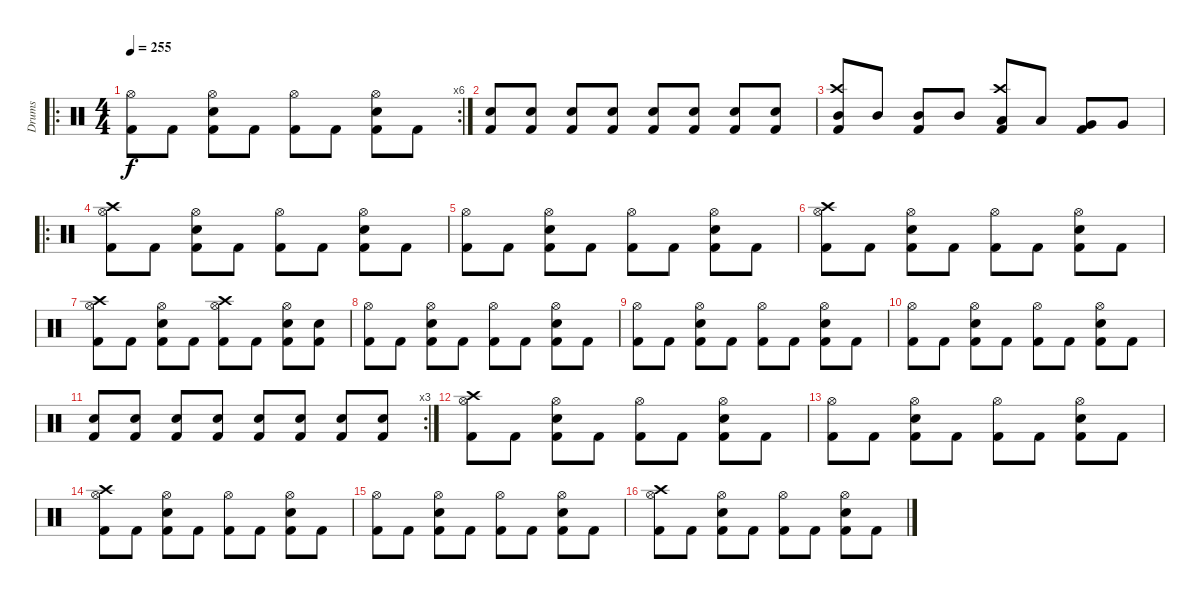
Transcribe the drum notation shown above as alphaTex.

\track ("Drums" "Drums") {instrument percussion}
\staff {score}
\articulation defaults
\ro
\rc 6
\ts (4 4)
\tempo 255
\clef neutral
\ks c
("Hi-Hat (open)" "Kick (hit) 2").8{dy f} "Kick (hit) 2".8 ("Hi-Hat (open)" "Electric Snare (hit)" "Kick (hit) 2").8 "Kick (hit) 2".8 ("Hi-Hat (open)" "Kick (hit) 2").8 "Kick (hit) 2".8 ("Hi-Hat (open)" "Electric Snare (hit)" "Kick (hit) 2").8 "Kick (hit) 2".8 |
("Electric Snare (hit)" "Kick (hit) 2").8 ("Electric Snare (hit)" "Kick (hit) 2").8 ("Electric Snare (hit)" "Kick (hit) 2").8 ("Electric Snare (hit)" "Kick (hit) 2").8 ("Electric Snare (hit)" "Kick (hit) 2").8 ("Electric Snare (hit)" "Kick (hit) 2").8 ("Electric Snare (hit)" "Kick (hit) 2").8 ("Electric Snare (hit)" "Kick (hit) 2").8 |
("Crash high (hit)" "Mid Tom (hit)" "Kick (hit) 2").8 "Mid Tom (hit)".8 ("Mid Tom (hit)" "Kick (hit) 2").8 "Mid Tom (hit)".8 ("Crash high (hit)" "Low Tom (hit)" "Kick (hit) 2").8 "Low Tom (hit)".8 ("Very Low Tom (hit)" "Kick (hit) 2").8 "Very Low Tom (hit)".8 |
\ro
("Crash high (hit)" "Hi-Hat (open)" "Kick (hit) 2").8 "Kick (hit) 2".8 ("Hi-Hat (open)" "Electric Snare (hit)" "Kick (hit) 2").8 "Kick (hit) 2".8 ("Hi-Hat (open)" "Kick (hit) 2").8 "Kick (hit) 2".8 ("Hi-Hat (open)" "Electric Snare (hit)" "Kick (hit) 2").8 "Kick (hit) 2".8 |
("Hi-Hat (open)" "Kick (hit) 2").8 "Kick (hit) 2".8 ("Hi-Hat (open)" "Electric Snare (hit)" "Kick (hit) 2").8 "Kick (hit) 2".8 ("Hi-Hat (open)" "Kick (hit) 2").8 "Kick (hit) 2".8 ("Hi-Hat (open)" "Electric Snare (hit)" "Kick (hit) 2").8 "Kick (hit) 2".8 |
("Crash high (hit)" "Hi-Hat (open)" "Kick (hit) 2").8 "Kick (hit) 2".8 ("Hi-Hat (open)" "Electric Snare (hit)" "Kick (hit) 2").8 "Kick (hit) 2".8 ("Hi-Hat (open)" "Kick (hit) 2").8 "Kick (hit) 2".8 ("Hi-Hat (open)" "Electric Snare (hit)" "Kick (hit) 2").8 "Kick (hit) 2".8 |
("Crash high (hit)" "Hi-Hat (open)" "Kick (hit) 2").8 "Kick (hit) 2".8 ("Hi-Hat (open)" "Electric Snare (hit)" "Kick (hit) 2").8 "Kick (hit) 2".8 ("Crash high (hit)" "Hi-Hat (open)" "Kick (hit) 2").8 "Kick (hit) 2".8 ("Hi-Hat (open)" "Electric Snare (hit)" "Kick (hit) 2").8 ("Electric Snare (hit)" "Kick (hit) 2").8 |
("Hi-Hat (open)" "Kick (hit) 2").8 "Kick (hit) 2".8 ("Hi-Hat (open)" "Electric Snare (hit)" "Kick (hit) 2").8 "Kick (hit) 2".8 ("Hi-Hat (open)" "Kick (hit) 2").8 "Kick (hit) 2".8 ("Hi-Hat (open)" "Electric Snare (hit)" "Kick (hit) 2").8 "Kick (hit) 2".8 |
("Hi-Hat (open)" "Kick (hit) 2").8 "Kick (hit) 2".8 ("Hi-Hat (open)" "Electric Snare (hit)" "Kick (hit) 2").8 "Kick (hit) 2".8 ("Hi-Hat (open)" "Kick (hit) 2").8 "Kick (hit) 2".8 ("Hi-Hat (open)" "Electric Snare (hit)" "Kick (hit) 2").8 "Kick (hit) 2".8 |
("Hi-Hat (open)" "Kick (hit) 2").8 "Kick (hit) 2".8 ("Hi-Hat (open)" "Electric Snare (hit)" "Kick (hit) 2").8 "Kick (hit) 2".8 ("Hi-Hat (open)" "Kick (hit) 2").8 "Kick (hit) 2".8 ("Hi-Hat (open)" "Electric Snare (hit)" "Kick (hit) 2").8 "Kick (hit) 2".8 |
\rc 3
("Electric Snare (hit)" "Kick (hit) 2").8 ("Electric Snare (hit)" "Kick (hit) 2").8 ("Electric Snare (hit)" "Kick (hit) 2").8 ("Electric Snare (hit)" "Kick (hit) 2").8 ("Electric Snare (hit)" "Kick (hit) 2").8 ("Electric Snare (hit)" "Kick (hit) 2").8 ("Electric Snare (hit)" "Kick (hit) 2").8 ("Electric Snare (hit)" "Kick (hit) 2").8 |
("Crash high (hit)" "Hi-Hat (open)" "Kick (hit) 2").8 "Kick (hit) 2".8 ("Hi-Hat (open)" "Electric Snare (hit)" "Kick (hit) 2").8 "Kick (hit) 2".8 ("Hi-Hat (open)" "Kick (hit) 2").8 "Kick (hit) 2".8 ("Hi-Hat (open)" "Electric Snare (hit)" "Kick (hit) 2").8 "Kick (hit) 2".8 |
("Hi-Hat (open)" "Kick (hit) 2").8 "Kick (hit) 2".8 ("Hi-Hat (open)" "Electric Snare (hit)" "Kick (hit) 2").8 "Kick (hit) 2".8 ("Hi-Hat (open)" "Kick (hit) 2").8 "Kick (hit) 2".8 ("Hi-Hat (open)" "Electric Snare (hit)" "Kick (hit) 2").8 "Kick (hit) 2".8 |
("Crash high (hit)" "Hi-Hat (open)" "Kick (hit) 2").8 "Kick (hit) 2".8 ("Hi-Hat (open)" "Electric Snare (hit)" "Kick (hit) 2").8 "Kick (hit) 2".8 ("Hi-Hat (open)" "Kick (hit) 2").8 "Kick (hit) 2".8 ("Hi-Hat (open)" "Electric Snare (hit)" "Kick (hit) 2").8 "Kick (hit) 2".8 |
("Hi-Hat (open)" "Kick (hit) 2").8 "Kick (hit) 2".8 ("Hi-Hat (open)" "Electric Snare (hit)" "Kick (hit) 2").8 "Kick (hit) 2".8 ("Hi-Hat (open)" "Kick (hit) 2").8 "Kick (hit) 2".8 ("Hi-Hat (open)" "Electric Snare (hit)" "Kick (hit) 2").8 "Kick (hit) 2".8 |
("Crash high (hit)" "Hi-Hat (open)" "Kick (hit) 2").8 "Kick (hit) 2".8 ("Hi-Hat (open)" "Electric Snare (hit)" "Kick (hit) 2").8 "Kick (hit) 2".8 ("Hi-Hat (open)" "Kick (hit) 2").8 "Kick (hit) 2".8 ("Hi-Hat (open)" "Electric Snare (hit)" "Kick (hit) 2").8 "Kick (hit) 2".8
